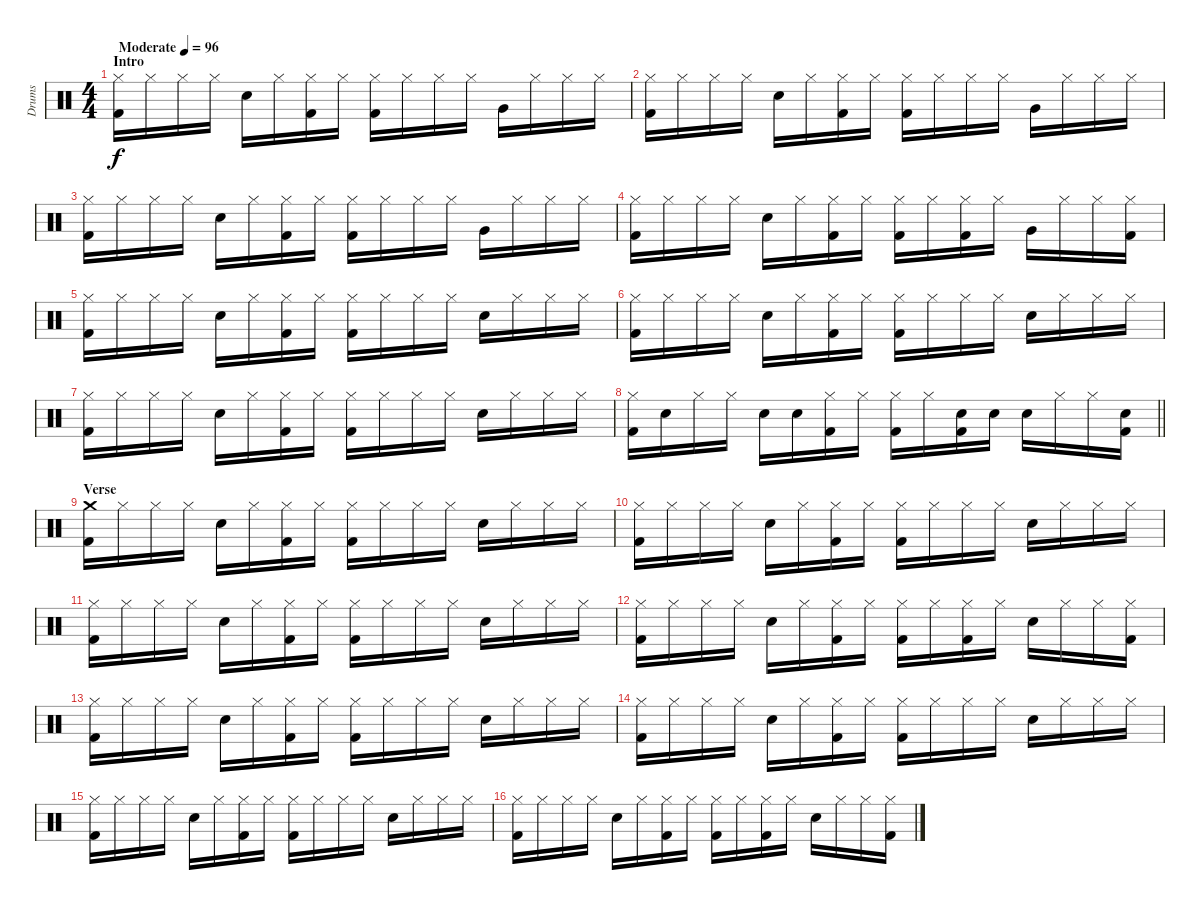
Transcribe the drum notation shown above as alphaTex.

\track ("Drums" "Drums") {instrument percussion}
\staff {score}
\articulation defaults
\ts (4 4)
\section ("" "Intro")
\tempo (96 "Moderate")
\clef neutral
\ks c
("Hi-Hat (closed)" "Kick (hit) 2").16{dy f} "Hi-Hat (closed)".16 "Hi-Hat (closed)".16 "Hi-Hat (closed)".16 "Snare (hit) 2".16 "Hi-Hat (closed)".16 ("Hi-Hat (closed)" "Kick (hit) 2").16 "Hi-Hat (closed)".16 ("Hi-Hat (closed)" "Kick (hit) 2").16 "Hi-Hat (closed)".16 "Hi-Hat (closed)".16 "Hi-Hat (closed)".16 "Very Low Tom (hit)".16 "Hi-Hat (closed)".16 "Hi-Hat (closed)".16 "Hi-Hat (closed)".16 |
("Hi-Hat (closed)" "Kick (hit) 2").16 "Hi-Hat (closed)".16 "Hi-Hat (closed)".16 "Hi-Hat (closed)".16 "Snare (hit) 2".16 "Hi-Hat (closed)".16 ("Hi-Hat (closed)" "Kick (hit) 2").16 "Hi-Hat (closed)".16 ("Hi-Hat (closed)" "Kick (hit) 2").16 "Hi-Hat (closed)".16 "Hi-Hat (closed)".16 "Hi-Hat (closed)".16 "Very Low Tom (hit)".16 "Hi-Hat (closed)".16 "Hi-Hat (closed)".16 "Hi-Hat (closed)".16 |
("Hi-Hat (closed)" "Kick (hit) 2").16 "Hi-Hat (closed)".16 "Hi-Hat (closed)".16 "Hi-Hat (closed)".16 "Snare (hit) 2".16 "Hi-Hat (closed)".16 ("Hi-Hat (closed)" "Kick (hit) 2").16 "Hi-Hat (closed)".16 ("Hi-Hat (closed)" "Kick (hit) 2").16 "Hi-Hat (closed)".16 "Hi-Hat (closed)".16 "Hi-Hat (closed)".16 "Very Low Tom (hit)".16 "Hi-Hat (closed)".16 "Hi-Hat (closed)".16 "Hi-Hat (closed)".16 |
("Hi-Hat (closed)" "Kick (hit) 2").16 "Hi-Hat (closed)".16 "Hi-Hat (closed)".16 "Hi-Hat (closed)".16 "Snare (hit) 2".16 "Hi-Hat (closed)".16 ("Hi-Hat (closed)" "Kick (hit) 2").16 "Hi-Hat (closed)".16 ("Hi-Hat (closed)" "Kick (hit) 2").16 "Hi-Hat (closed)".16 ("Hi-Hat (closed)" "Kick (hit) 2").16 "Hi-Hat (closed)".16 "Very Low Tom (hit)".16 "Hi-Hat (closed)".16 "Hi-Hat (closed)".16 ("Hi-Hat (closed)" "Kick (hit) 2").16 |
("Hi-Hat (closed)" "Kick (hit) 2").16 "Hi-Hat (closed)".16 "Hi-Hat (closed)".16 "Hi-Hat (closed)".16 "Snare (hit) 2".16 "Hi-Hat (closed)".16 ("Hi-Hat (closed)" "Kick (hit) 2").16 "Hi-Hat (closed)".16 ("Hi-Hat (closed)" "Kick (hit) 2").16 "Hi-Hat (closed)".16 "Hi-Hat (closed)".16 "Hi-Hat (closed)".16 "Snare (hit) 2".16 "Hi-Hat (closed)".16 "Hi-Hat (closed)".16 "Hi-Hat (closed)".16 |
("Hi-Hat (closed)" "Kick (hit) 2").16 "Hi-Hat (closed)".16 "Hi-Hat (closed)".16 "Hi-Hat (closed)".16 "Snare (hit) 2".16 "Hi-Hat (closed)".16 ("Hi-Hat (closed)" "Kick (hit) 2").16 "Hi-Hat (closed)".16 ("Hi-Hat (closed)" "Kick (hit) 2").16 "Hi-Hat (closed)".16 "Hi-Hat (closed)".16 "Hi-Hat (closed)".16 "Snare (hit) 2".16 "Hi-Hat (closed)".16 "Hi-Hat (closed)".16 "Hi-Hat (closed)".16 |
("Hi-Hat (closed)" "Kick (hit) 2").16 "Hi-Hat (closed)".16 "Hi-Hat (closed)".16 "Hi-Hat (closed)".16 "Snare (hit) 2".16 "Hi-Hat (closed)".16 ("Hi-Hat (closed)" "Kick (hit) 2").16 "Hi-Hat (closed)".16 ("Hi-Hat (closed)" "Kick (hit) 2").16 "Hi-Hat (closed)".16 "Hi-Hat (closed)".16 "Hi-Hat (closed)".16 "Snare (hit) 2".16 "Hi-Hat (closed)".16 "Hi-Hat (closed)".16 "Hi-Hat (closed)".16 |
\barLineRight lightlight
("Hi-Hat (closed)" "Kick (hit) 2").16 "Snare (hit) 2".16 "Hi-Hat (closed)".16 "Hi-Hat (closed)".16 "Snare (hit) 2".16 "Snare (hit) 2".16 ("Hi-Hat (closed)" "Kick (hit) 2").16 "Hi-Hat (closed)".16 ("Hi-Hat (closed)" "Kick (hit) 2").16 "Hi-Hat (closed)".16 ("Snare (hit) 2" "Kick (hit) 2").16 "Snare (hit) 2".16 "Snare (hit) 2".16 "Hi-Hat (closed)".16 "Hi-Hat (closed)".16 ("Snare (hit) 2" "Kick (hit) 2").16 |
\section ("" "Verse")
("Crash medium (hit)" "Kick (hit) 2").16 "Hi-Hat (closed)".16 "Hi-Hat (closed)".16 "Hi-Hat (closed)".16 "Snare (hit) 2".16 "Hi-Hat (closed)".16 ("Hi-Hat (closed)" "Kick (hit) 2").16 "Hi-Hat (closed)".16 ("Hi-Hat (closed)" "Kick (hit) 2").16 "Hi-Hat (closed)".16 "Hi-Hat (closed)".16 "Hi-Hat (closed)".16 "Snare (hit) 2".16 "Hi-Hat (closed)".16 "Hi-Hat (closed)".16 "Hi-Hat (closed)".16 |
("Hi-Hat (closed)" "Kick (hit) 2").16 "Hi-Hat (closed)".16 "Hi-Hat (closed)".16 "Hi-Hat (closed)".16 "Snare (hit) 2".16 "Hi-Hat (closed)".16 ("Hi-Hat (closed)" "Kick (hit) 2").16 "Hi-Hat (closed)".16 ("Hi-Hat (closed)" "Kick (hit) 2").16 "Hi-Hat (closed)".16 "Hi-Hat (closed)".16 "Hi-Hat (closed)".16 "Snare (hit) 2".16 "Hi-Hat (closed)".16 "Hi-Hat (closed)".16 "Hi-Hat (closed)".16 |
("Hi-Hat (closed)" "Kick (hit) 2").16 "Hi-Hat (closed)".16 "Hi-Hat (closed)".16 "Hi-Hat (closed)".16 "Snare (hit) 2".16 "Hi-Hat (closed)".16 ("Hi-Hat (closed)" "Kick (hit) 2").16 "Hi-Hat (closed)".16 ("Hi-Hat (closed)" "Kick (hit) 2").16 "Hi-Hat (closed)".16 "Hi-Hat (closed)".16 "Hi-Hat (closed)".16 "Snare (hit) 2".16 "Hi-Hat (closed)".16 "Hi-Hat (closed)".16 "Hi-Hat (closed)".16 |
("Hi-Hat (closed)" "Kick (hit) 2").16 "Hi-Hat (closed)".16 "Hi-Hat (closed)".16 "Hi-Hat (closed)".16 "Snare (hit) 2".16 "Hi-Hat (closed)".16 ("Hi-Hat (closed)" "Kick (hit) 2").16 "Hi-Hat (closed)".16 ("Hi-Hat (closed)" "Kick (hit) 2").16 "Hi-Hat (closed)".16 ("Hi-Hat (closed)" "Kick (hit) 2").16 "Hi-Hat (closed)".16 "Snare (hit) 2".16 "Hi-Hat (closed)".16 "Hi-Hat (closed)".16 ("Hi-Hat (closed)" "Kick (hit) 2").16 |
("Hi-Hat (closed)" "Kick (hit) 2").16 "Hi-Hat (closed)".16 "Hi-Hat (closed)".16 "Hi-Hat (closed)".16 "Snare (hit) 2".16 "Hi-Hat (closed)".16 ("Hi-Hat (closed)" "Kick (hit) 2").16 "Hi-Hat (closed)".16 ("Hi-Hat (closed)" "Kick (hit) 2").16 "Hi-Hat (closed)".16 "Hi-Hat (closed)".16 "Hi-Hat (closed)".16 "Snare (hit) 2".16 "Hi-Hat (closed)".16 "Hi-Hat (closed)".16 "Hi-Hat (closed)".16 |
("Hi-Hat (closed)" "Kick (hit) 2").16 "Hi-Hat (closed)".16 "Hi-Hat (closed)".16 "Hi-Hat (closed)".16 "Snare (hit) 2".16 "Hi-Hat (closed)".16 ("Hi-Hat (closed)" "Kick (hit) 2").16 "Hi-Hat (closed)".16 ("Hi-Hat (closed)" "Kick (hit) 2").16 "Hi-Hat (closed)".16 "Hi-Hat (closed)".16 "Hi-Hat (closed)".16 "Snare (hit) 2".16 "Hi-Hat (closed)".16 "Hi-Hat (closed)".16 "Hi-Hat (closed)".16 |
("Hi-Hat (closed)" "Kick (hit) 2").16 "Hi-Hat (closed)".16 "Hi-Hat (closed)".16 "Hi-Hat (closed)".16 "Snare (hit) 2".16 "Hi-Hat (closed)".16 ("Hi-Hat (closed)" "Kick (hit) 2").16 "Hi-Hat (closed)".16 ("Hi-Hat (closed)" "Kick (hit) 2").16 "Hi-Hat (closed)".16 "Hi-Hat (closed)".16 "Hi-Hat (closed)".16 "Snare (hit) 2".16 "Hi-Hat (closed)".16 "Hi-Hat (closed)".16 "Hi-Hat (closed)".16 |
("Hi-Hat (closed)" "Kick (hit) 2").16 "Hi-Hat (closed)".16 "Hi-Hat (closed)".16 "Hi-Hat (closed)".16 "Snare (hit) 2".16 "Hi-Hat (closed)".16 ("Hi-Hat (closed)" "Kick (hit) 2").16 "Hi-Hat (closed)".16 ("Hi-Hat (closed)" "Kick (hit) 2").16 "Hi-Hat (closed)".16 ("Hi-Hat (closed)" "Kick (hit) 2").16 "Hi-Hat (closed)".16 "Snare (hit) 2".16 "Hi-Hat (closed)".16 "Hi-Hat (closed)".16 ("Hi-Hat (closed)" "Kick (hit) 2").16
